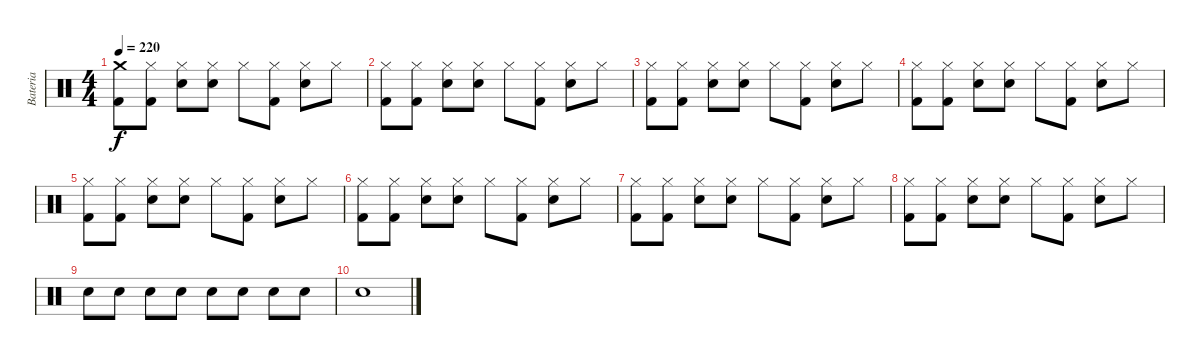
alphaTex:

\track ("Bateria" "Bateria") {instrument percussion}
\staff {score}
\articulation defaults
\ts (4 4)
\tempo 220
\clef neutral
\ks c
("Crash medium (hit)" "Kick (hit) 2").8{dy f} ("Hi-Hat (closed)" "Kick (hit) 2").8 ("Hi-Hat (closed)" "Electric Snare (hit)").8 ("Hi-Hat (closed)" "Electric Snare (hit)").8 "Hi-Hat (closed)".8 ("Hi-Hat (closed)" "Kick (hit) 2").8 ("Hi-Hat (closed)" "Electric Snare (hit)").8 "Hi-Hat (closed)".8 |
("Hi-Hat (closed)" "Kick (hit) 2").8 ("Hi-Hat (closed)" "Kick (hit) 2").8 ("Hi-Hat (closed)" "Electric Snare (hit)").8 ("Hi-Hat (closed)" "Electric Snare (hit)").8 "Hi-Hat (closed)".8 ("Hi-Hat (closed)" "Kick (hit) 2").8 ("Hi-Hat (closed)" "Electric Snare (hit)").8 "Hi-Hat (closed)".8 |
("Hi-Hat (closed)" "Kick (hit) 2").8 ("Hi-Hat (closed)" "Kick (hit) 2").8 ("Hi-Hat (closed)" "Electric Snare (hit)").8 ("Hi-Hat (closed)" "Electric Snare (hit)").8 "Hi-Hat (closed)".8 ("Hi-Hat (closed)" "Kick (hit) 2").8 ("Hi-Hat (closed)" "Electric Snare (hit)").8 "Hi-Hat (closed)".8 |
("Hi-Hat (closed)" "Kick (hit) 2").8 ("Hi-Hat (closed)" "Kick (hit) 2").8 ("Hi-Hat (closed)" "Electric Snare (hit)").8 ("Hi-Hat (closed)" "Electric Snare (hit)").8 "Hi-Hat (closed)".8 ("Hi-Hat (closed)" "Kick (hit) 2").8 ("Hi-Hat (closed)" "Electric Snare (hit)").8 "Hi-Hat (closed)".8 |
("Hi-Hat (closed)" "Kick (hit) 2").8 ("Hi-Hat (closed)" "Kick (hit) 2").8 ("Hi-Hat (closed)" "Electric Snare (hit)").8 ("Hi-Hat (closed)" "Electric Snare (hit)").8 "Hi-Hat (closed)".8 ("Hi-Hat (closed)" "Kick (hit) 2").8 ("Hi-Hat (closed)" "Electric Snare (hit)").8 "Hi-Hat (closed)".8 |
("Hi-Hat (closed)" "Kick (hit) 2").8 ("Hi-Hat (closed)" "Kick (hit) 2").8 ("Hi-Hat (closed)" "Electric Snare (hit)").8 ("Hi-Hat (closed)" "Electric Snare (hit)").8 "Hi-Hat (closed)".8 ("Hi-Hat (closed)" "Kick (hit) 2").8 ("Hi-Hat (closed)" "Electric Snare (hit)").8 "Hi-Hat (closed)".8 |
("Hi-Hat (closed)" "Kick (hit) 2").8 ("Hi-Hat (closed)" "Kick (hit) 2").8 ("Hi-Hat (closed)" "Electric Snare (hit)").8 ("Hi-Hat (closed)" "Electric Snare (hit)").8 "Hi-Hat (closed)".8 ("Hi-Hat (closed)" "Kick (hit) 2").8 ("Hi-Hat (closed)" "Electric Snare (hit)").8 "Hi-Hat (closed)".8 |
("Hi-Hat (closed)" "Kick (hit) 2").8 ("Hi-Hat (closed)" "Kick (hit) 2").8 ("Hi-Hat (closed)" "Electric Snare (hit)").8 ("Hi-Hat (closed)" "Electric Snare (hit)").8 "Hi-Hat (closed)".8 ("Hi-Hat (closed)" "Kick (hit) 2").8 ("Hi-Hat (closed)" "Electric Snare (hit)").8 "Hi-Hat (closed)".8 |
"Electric Snare (hit)".8 "Electric Snare (hit)".8 "Electric Snare (hit)".8 "Electric Snare (hit)".8 "Electric Snare (hit)".8 "Electric Snare (hit)".8 "Electric Snare (hit)".8 "Electric Snare (hit)".8 |
"Electric Snare (hit)".1
